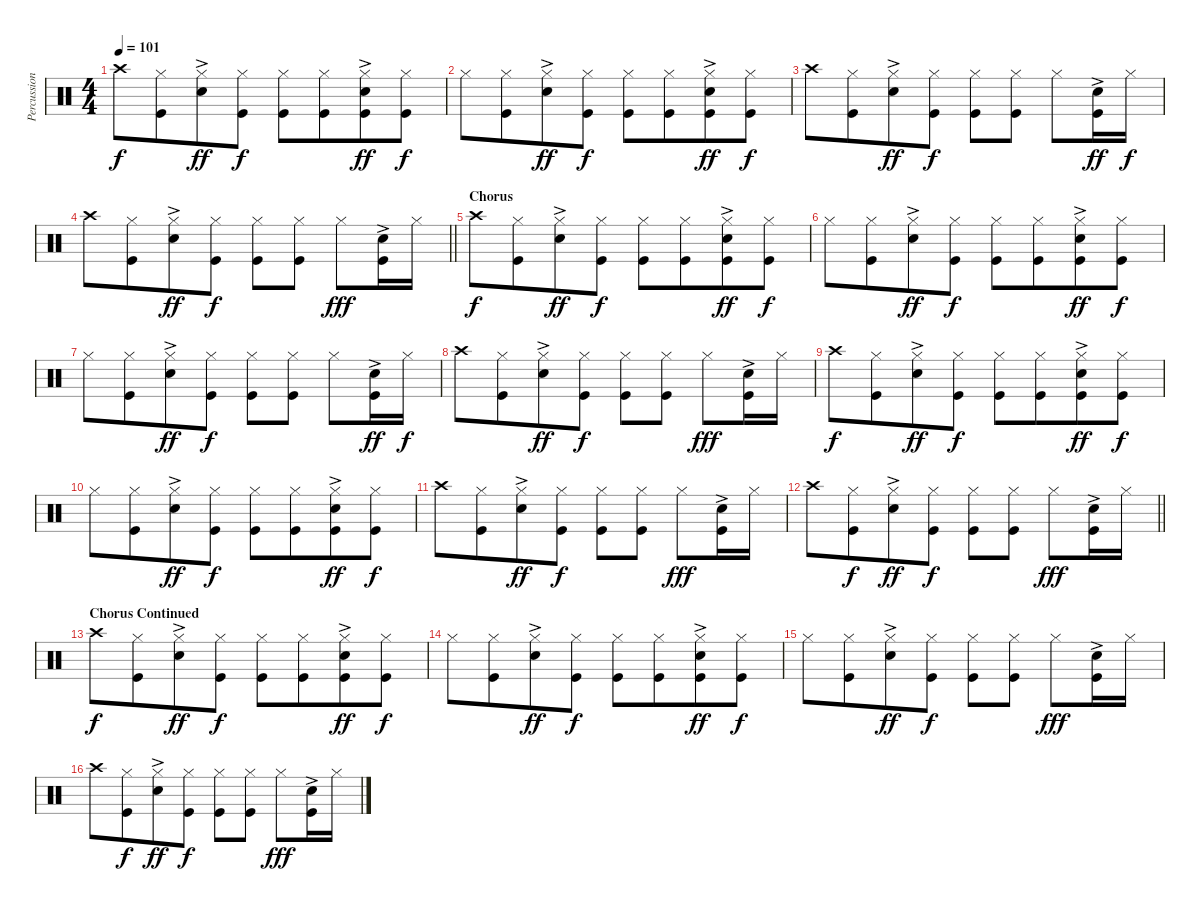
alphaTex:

\track ("Percussion" "Percussion") {instrument percussion}
\staff {score}
\articulation defaults
\ts (4 4)
\tempo 101
\clef neutral
\ks c "Crash high (hit)".8{dy f}
("Hi-Hat (closed)" "Kick (hit)").8{beam merge} ("Hi-Hat (closed)" "Snare (hit) 2"{ac}).8{dy ff} ("Hi-Hat (closed)" "Kick (hit)").8{dy f} ("Hi-Hat (closed)" "Kick (hit)").8 ("Hi-Hat (closed)" "Kick (hit)").8{beam merge} ("Hi-Hat (closed)" "Snare (hit) 2"{ac} "Kick (hit)").8{dy ff} ("Hi-Hat (closed)" "Kick (hit)").8{dy f} |
"Hi-Hat (closed)".8 ("Hi-Hat (closed)" "Kick (hit)").8{beam merge} ("Hi-Hat (closed)" "Snare (hit) 2"{ac}).8{dy ff} ("Hi-Hat (closed)" "Kick (hit)").8{dy f} ("Hi-Hat (closed)" "Kick (hit)").8 ("Hi-Hat (closed)" "Kick (hit)").8{beam merge} ("Hi-Hat (closed)" "Snare (hit) 2"{ac} "Kick (hit)").8{dy ff} ("Hi-Hat (closed)" "Kick (hit)").8{dy f} |
"Crash high (hit)".8 ("Hi-Hat (closed)" "Kick (hit)").8{beam merge} ("Hi-Hat (closed)" "Snare (hit) 2"{ac}).8{dy ff} ("Hi-Hat (closed)" "Kick (hit)").8{dy f} ("Hi-Hat (closed)" "Kick (hit)").8 ("Hi-Hat (closed)" "Kick (hit)").8 "Hi-Hat (closed)".8 ("Snare (hit) 2"{ac} "Kick (hit)").16{dy ff} "Hi-Hat (closed)".16{dy f} |
\barLineRight lightlight "Crash high (hit)".8
("Hi-Hat (closed)" "Kick (hit)").8{beam merge} ("Hi-Hat (closed)" "Snare (hit) 2"{ac}).8{dy ff} ("Hi-Hat (closed)" "Kick (hit)").8{dy f} ("Hi-Hat (closed)" "Kick (hit)").8 ("Hi-Hat (closed)" "Kick (hit)").8 "Hi-Hat (closed)".8{dy fff} ("Snare (hit) 2"{ac} "Kick (hit)").16 "Hi-Hat (closed)".16 |
\section ("" "Chorus")
"Crash high (hit)".8{dy f} ("Hi-Hat (closed)" "Kick (hit)").8{beam merge} ("Hi-Hat (closed)" "Snare (hit) 2"{ac}).8{dy ff} ("Hi-Hat (closed)" "Kick (hit)").8{dy f} ("Hi-Hat (closed)" "Kick (hit)").8 ("Hi-Hat (closed)" "Kick (hit)").8{beam merge} ("Hi-Hat (closed)" "Snare (hit) 2"{ac} "Kick (hit)").8{dy ff} ("Hi-Hat (closed)" "Kick (hit)").8{dy f} |
"Hi-Hat (closed)".8 ("Hi-Hat (closed)" "Kick (hit)").8{beam merge} ("Hi-Hat (closed)" "Snare (hit) 2"{ac}).8{dy ff} ("Hi-Hat (closed)" "Kick (hit)").8{dy f} ("Hi-Hat (closed)" "Kick (hit)").8 ("Hi-Hat (closed)" "Kick (hit)").8{beam merge} ("Hi-Hat (closed)" "Snare (hit) 2"{ac} "Kick (hit)").8{dy ff} ("Hi-Hat (closed)" "Kick (hit)").8{dy f} |
"Hi-Hat (closed)".8 ("Hi-Hat (closed)" "Kick (hit)").8{beam merge} ("Hi-Hat (closed)" "Snare (hit) 2"{ac}).8{dy ff} ("Hi-Hat (closed)" "Kick (hit)").8{dy f} ("Hi-Hat (closed)" "Kick (hit)").8 ("Hi-Hat (closed)" "Kick (hit)").8 "Hi-Hat (closed)".8 ("Snare (hit) 2"{ac} "Kick (hit)").16{dy ff} "Hi-Hat (closed)".16{dy f} |
"Crash high (hit)".8 ("Hi-Hat (closed)" "Kick (hit)").8{beam merge} ("Hi-Hat (closed)" "Snare (hit) 2"{ac}).8{dy ff} ("Hi-Hat (closed)" "Kick (hit)").8{dy f} ("Hi-Hat (closed)" "Kick (hit)").8 ("Hi-Hat (closed)" "Kick (hit)").8 "Hi-Hat (closed)".8{dy fff} ("Snare (hit) 2"{ac} "Kick (hit)").16 "Hi-Hat (closed)".16 |
"Crash high (hit)".8{dy f} ("Hi-Hat (closed)" "Kick (hit)").8{beam merge} ("Hi-Hat (closed)" "Snare (hit) 2"{ac}).8{dy ff} ("Hi-Hat (closed)" "Kick (hit)").8{dy f} ("Hi-Hat (closed)" "Kick (hit)").8 ("Hi-Hat (closed)" "Kick (hit)").8{beam merge} ("Hi-Hat (closed)" "Snare (hit) 2"{ac} "Kick (hit)").8{dy ff} ("Hi-Hat (closed)" "Kick (hit)").8{dy f} |
"Hi-Hat (closed)".8 ("Hi-Hat (closed)" "Kick (hit)").8{beam merge} ("Hi-Hat (closed)" "Snare (hit) 2"{ac}).8{dy ff} ("Hi-Hat (closed)" "Kick (hit)").8{dy f} ("Hi-Hat (closed)" "Kick (hit)").8 ("Hi-Hat (closed)" "Kick (hit)").8{beam merge} ("Hi-Hat (closed)" "Snare (hit) 2"{ac} "Kick (hit)").8{dy ff} ("Hi-Hat (closed)" "Kick (hit)").8{dy f} |
"Crash high (hit)".8 ("Hi-Hat (closed)" "Kick (hit)").8{beam merge} ("Hi-Hat (closed)" "Snare (hit) 2"{ac}).8{dy ff} ("Hi-Hat (closed)" "Kick (hit)").8{dy f} ("Hi-Hat (closed)" "Kick (hit)").8 ("Hi-Hat (closed)" "Kick (hit)").8 "Hi-Hat (closed)".8{dy fff} ("Snare (hit) 2"{ac} "Kick (hit)").16 "Hi-Hat (closed)".16 |
\barLineRight lightlight "Crash high (hit)".8
("Hi-Hat (closed)" "Kick (hit)").8{dy f beam merge} ("Hi-Hat (closed)" "Snare (hit) 2"{ac}).8{dy ff} ("Hi-Hat (closed)" "Kick (hit)").8{dy f} ("Hi-Hat (closed)" "Kick (hit)").8 ("Hi-Hat (closed)" "Kick (hit)").8 "Hi-Hat (closed)".8{dy fff} ("Snare (hit) 2"{ac} "Kick (hit)").16 "Hi-Hat (closed)".16 |
\section ("" "Chorus Continued")
"Crash high (hit)".8{dy f} ("Hi-Hat (closed)" "Kick (hit)").8{beam merge} ("Hi-Hat (closed)" "Snare (hit) 2"{ac}).8{dy ff} ("Hi-Hat (closed)" "Kick (hit)").8{dy f} ("Hi-Hat (closed)" "Kick (hit)").8 ("Hi-Hat (closed)" "Kick (hit)").8{beam merge} ("Hi-Hat (closed)" "Snare (hit) 2"{ac} "Kick (hit)").8{dy ff} ("Hi-Hat (closed)" "Kick (hit)").8{dy f} |
"Hi-Hat (closed)".8 ("Hi-Hat (closed)" "Kick (hit)").8{beam merge} ("Hi-Hat (closed)" "Snare (hit) 2"{ac}).8{dy ff} ("Hi-Hat (closed)" "Kick (hit)").8{dy f} ("Hi-Hat (closed)" "Kick (hit)").8 ("Hi-Hat (closed)" "Kick (hit)").8{beam merge} ("Hi-Hat (closed)" "Snare (hit) 2"{ac} "Kick (hit)").8{dy ff} ("Hi-Hat (closed)" "Kick (hit)").8{dy f} |
"Hi-Hat (closed)".8 ("Hi-Hat (closed)" "Kick (hit)").8{beam merge} ("Hi-Hat (closed)" "Snare (hit) 2"{ac}).8{dy ff} ("Hi-Hat (closed)" "Kick (hit)").8{dy f} ("Hi-Hat (closed)" "Kick (hit)").8 ("Hi-Hat (closed)" "Kick (hit)").8 "Hi-Hat (closed)".8{dy fff} ("Snare (hit) 2"{ac} "Kick (hit)").16 "Hi-Hat (closed)".16 |
"Crash high (hit)".8 ("Hi-Hat (closed)" "Kick (hit)").8{dy f beam merge} ("Hi-Hat (closed)" "Snare (hit) 2"{ac}).8{dy ff} ("Hi-Hat (closed)" "Kick (hit)").8{dy f} ("Hi-Hat (closed)" "Kick (hit)").8 ("Hi-Hat (closed)" "Kick (hit)").8 "Hi-Hat (closed)".8{dy fff} ("Snare (hit) 2"{ac} "Kick (hit)").16 "Hi-Hat (closed)".16
